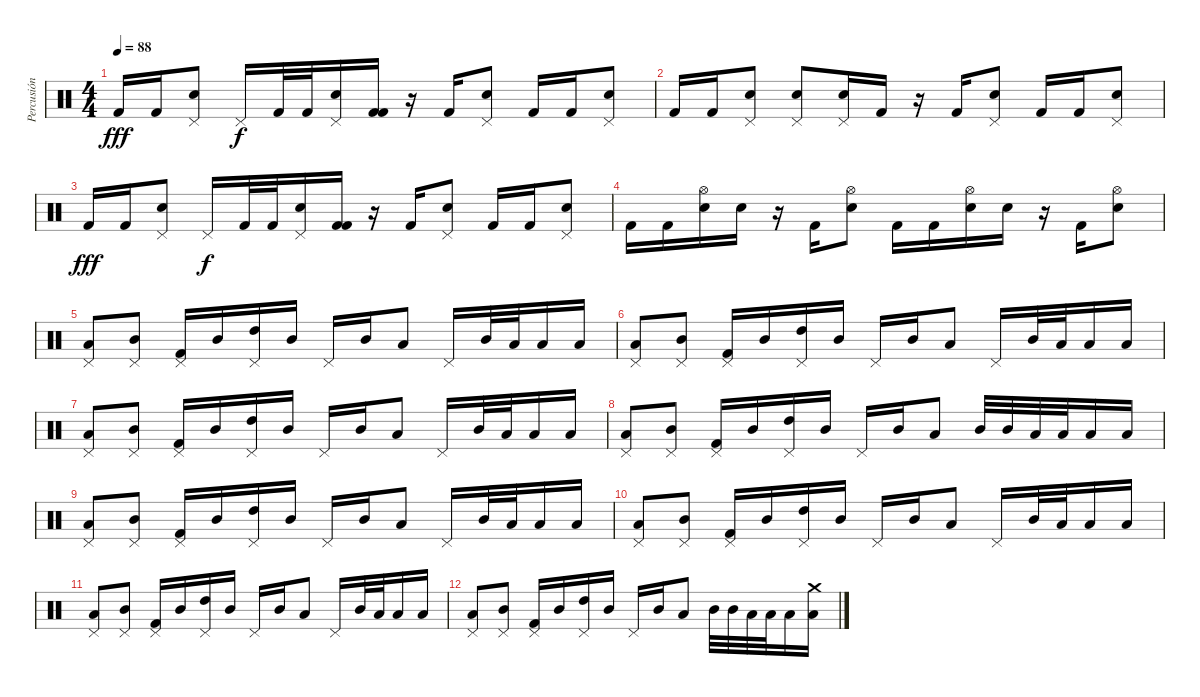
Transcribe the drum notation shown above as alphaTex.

\track ("Percusión" "Percusión") {instrument percussion}
\staff {score}
\articulation defaults
\ts (4 4)
\tempo 88
\clef neutral
\ks c "Kick (hit) 2".16{dy fff} "Kick (hit) 2".16
("Electric Snare (hit)" "Pedal Hi-Hat (hit)").8 "Pedal Hi-Hat (hit)".16{dy f} "Kick (hit) 2".32 "Kick (hit) 2".32 ("Electric Snare (hit)" "Pedal Hi-Hat (hit)").16 ("Kick (hit) 2" "Kick (hit) 2").16 r.16 "Kick (hit) 2".16 ("Electric Snare (hit)" "Pedal Hi-Hat (hit)").8 "Kick (hit) 2".16 "Kick (hit) 2".16 ("Electric Snare (hit)" "Pedal Hi-Hat (hit)").8 |
"Kick (hit) 2".16 "Kick (hit) 2".16 ("Electric Snare (hit)" "Pedal Hi-Hat (hit)").8 ("Electric Snare (hit)" "Pedal Hi-Hat (hit)").8 ("Electric Snare (hit)" "Pedal Hi-Hat (hit)").16 "Kick (hit) 2".16 r.16 "Kick (hit) 2".16 ("Electric Snare (hit)" "Pedal Hi-Hat (hit)").8 "Kick (hit) 2".16 "Kick (hit) 2".16 ("Electric Snare (hit)" "Pedal Hi-Hat (hit)").8 |
"Kick (hit) 2".16{dy fff} "Kick (hit) 2".16 ("Electric Snare (hit)" "Pedal Hi-Hat (hit)").8 "Pedal Hi-Hat (hit)".16{dy f} "Kick (hit) 2".32 "Kick (hit) 2".32 ("Electric Snare (hit)" "Pedal Hi-Hat (hit)").16 ("Kick (hit) 2" "Kick (hit) 2").16 r.16 "Kick (hit) 2".16 ("Electric Snare (hit)" "Pedal Hi-Hat (hit)").8 "Kick (hit) 2".16 "Kick (hit) 2".16 ("Electric Snare (hit)" "Pedal Hi-Hat (hit)").8 |
"Kick (hit) 2".16 "Kick (hit) 2".16 ("Electric Snare (hit)" "Hi-Hat (open)").16 "Electric Snare (hit)".16 r.16 "Kick (hit) 2".16 ("Electric Snare (hit)" "Hi-Hat (open)").8 "Kick (hit) 2".16 "Kick (hit) 2".16 ("Electric Snare (hit)" "Hi-Hat (open)").16 "Electric Snare (hit)".16 r.16 "Kick (hit) 2".16 ("Electric Snare (hit)" "Hi-Hat (open)").8 |
("Low Tom (hit)" "Pedal Hi-Hat (hit)").8 ("Mid Tom (hit)" "Pedal Hi-Hat (hit)").8 ("Kick (hit) 2" "Pedal Hi-Hat (hit)").16 "Mid Tom (hit)".16 ("High Tom (hit)" "Pedal Hi-Hat (hit)").16 "Mid Tom (hit)".16 "Pedal Hi-Hat (hit)".16 "Mid Tom (hit)".16 "Low Tom (hit)".8 "Pedal Hi-Hat (hit)".16 "Mid Tom (hit)".32 "Low Tom (hit)".32 "Low Tom (hit)".16 "Low Tom (hit)".16 |
("Low Tom (hit)" "Pedal Hi-Hat (hit)").8 ("Mid Tom (hit)" "Pedal Hi-Hat (hit)").8 ("Kick (hit) 2" "Pedal Hi-Hat (hit)").16 "Mid Tom (hit)".16 ("High Tom (hit)" "Pedal Hi-Hat (hit)").16 "Mid Tom (hit)".16 "Pedal Hi-Hat (hit)".16 "Mid Tom (hit)".16 "Low Tom (hit)".8 "Pedal Hi-Hat (hit)".16 "Mid Tom (hit)".32 "Low Tom (hit)".32 "Low Tom (hit)".16 "Low Tom (hit)".16 |
("Low Tom (hit)" "Pedal Hi-Hat (hit)").8 ("Mid Tom (hit)" "Pedal Hi-Hat (hit)").8 ("Kick (hit) 2" "Pedal Hi-Hat (hit)").16 "Mid Tom (hit)".16 ("High Tom (hit)" "Pedal Hi-Hat (hit)").16 "Mid Tom (hit)".16 "Pedal Hi-Hat (hit)".16 "Mid Tom (hit)".16 "Low Tom (hit)".8 "Pedal Hi-Hat (hit)".16 "Mid Tom (hit)".32 "Low Tom (hit)".32 "Low Tom (hit)".16 "Low Tom (hit)".16 |
("Low Tom (hit)" "Pedal Hi-Hat (hit)").8 ("Mid Tom (hit)" "Pedal Hi-Hat (hit)").8 ("Kick (hit) 2" "Pedal Hi-Hat (hit)").16 "Mid Tom (hit)".16 ("High Tom (hit)" "Pedal Hi-Hat (hit)").16 "Mid Tom (hit)".16 "Pedal Hi-Hat (hit)".16 "Mid Tom (hit)".16 "Low Tom (hit)".8 "Mid Tom (hit)".32 "Mid Tom (hit)".32 "Low Tom (hit)".32 "Low Tom (hit)".32 "Low Tom (hit)".16 "Low Tom (hit)".16 |
("Low Tom (hit)" "Pedal Hi-Hat (hit)").8 ("Mid Tom (hit)" "Pedal Hi-Hat (hit)").8 ("Kick (hit) 2" "Pedal Hi-Hat (hit)").16 "Mid Tom (hit)".16 ("High Tom (hit)" "Pedal Hi-Hat (hit)").16 "Mid Tom (hit)".16 "Pedal Hi-Hat (hit)".16 "Mid Tom (hit)".16 "Low Tom (hit)".8 "Pedal Hi-Hat (hit)".16 "Mid Tom (hit)".32 "Low Tom (hit)".32 "Low Tom (hit)".16 "Low Tom (hit)".16 |
("Low Tom (hit)" "Pedal Hi-Hat (hit)").8 ("Mid Tom (hit)" "Pedal Hi-Hat (hit)").8 ("Kick (hit) 2" "Pedal Hi-Hat (hit)").16 "Mid Tom (hit)".16 ("High Tom (hit)" "Pedal Hi-Hat (hit)").16 "Mid Tom (hit)".16 "Pedal Hi-Hat (hit)".16 "Mid Tom (hit)".16 "Low Tom (hit)".8 "Pedal Hi-Hat (hit)".16 "Mid Tom (hit)".32 "Low Tom (hit)".32 "Low Tom (hit)".16 "Low Tom (hit)".16 |
("Low Tom (hit)" "Pedal Hi-Hat (hit)").8 ("Mid Tom (hit)" "Pedal Hi-Hat (hit)").8 ("Kick (hit) 2" "Pedal Hi-Hat (hit)").16 "Mid Tom (hit)".16 ("High Tom (hit)" "Pedal Hi-Hat (hit)").16 "Mid Tom (hit)".16 "Pedal Hi-Hat (hit)".16 "Mid Tom (hit)".16 "Low Tom (hit)".8 "Pedal Hi-Hat (hit)".16 "Mid Tom (hit)".32 "Low Tom (hit)".32 "Low Tom (hit)".16 "Low Tom (hit)".16 |
("Low Tom (hit)" "Pedal Hi-Hat (hit)").8 ("Mid Tom (hit)" "Pedal Hi-Hat (hit)").8 ("Kick (hit) 2" "Pedal Hi-Hat (hit)").16 "Mid Tom (hit)".16 ("High Tom (hit)" "Pedal Hi-Hat (hit)").16 "Mid Tom (hit)".16 "Pedal Hi-Hat (hit)".16 "Mid Tom (hit)".16 "Low Tom (hit)".8 "Mid Tom (hit)".32 "Mid Tom (hit)".32 "Low Tom (hit)".32 "Low Tom (hit)".32 "Low Tom (hit)".16 ("Low Tom (hit)" "Crash medium (hit)").16
